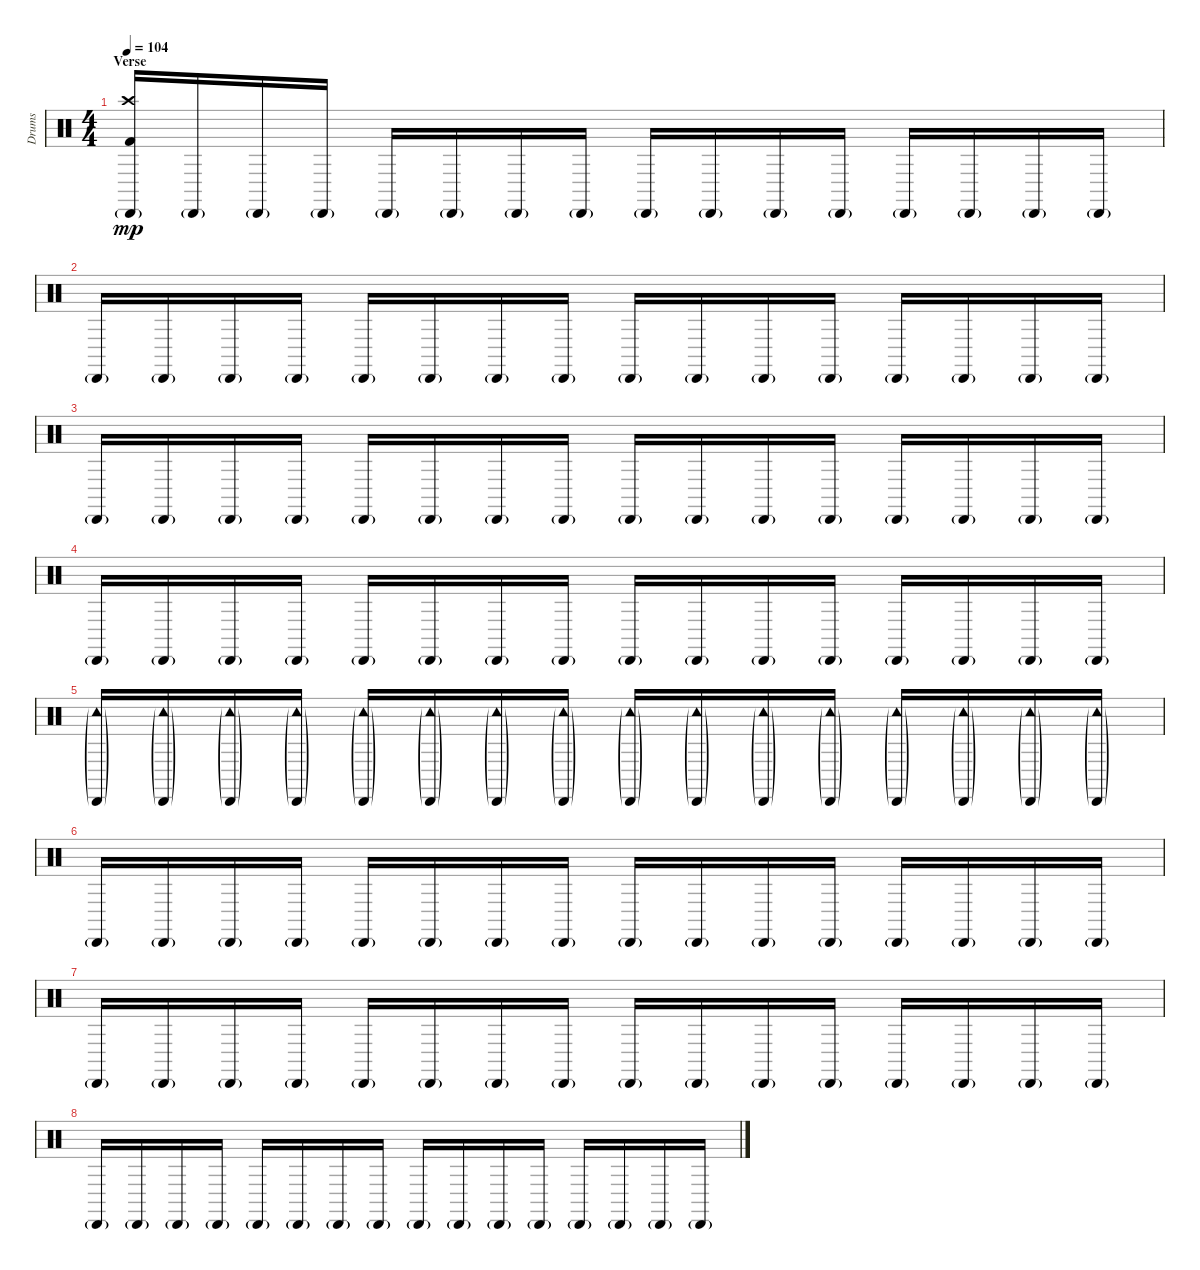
\track ("Drums" "Drums") {instrument percussion}
\staff {score}
\articulation defaults
\ts (4 4)
\section ("" "Verse")
\tempo 104
\clef neutral
\ks c
("Crash high (hit)" "Cabasa (hit)"{g} "Kick (hit) 2").16{dy mp} "Cabasa (hit)"{g}.16 "Cabasa (hit)"{g}.16 "Cabasa (hit)"{g}.16 "Cabasa (hit)"{g}.16 "Cabasa (hit)"{g}.16 "Cabasa (hit)"{g}.16 "Cabasa (hit)"{g}.16 "Cabasa (hit)"{g}.16 "Cabasa (hit)"{g}.16 "Cabasa (hit)"{g}.16 "Cabasa (hit)"{g}.16 "Cabasa (hit)"{g}.16 "Cabasa (hit)"{g}.16 "Cabasa (hit)"{g}.16 "Cabasa (hit)"{g}.16 |
"Cabasa (hit)"{g}.16 "Cabasa (hit)"{g}.16 "Cabasa (hit)"{g}.16 "Cabasa (hit)"{g}.16 "Cabasa (hit)"{g}.16 "Cabasa (hit)"{g}.16 "Cabasa (hit)"{g}.16 "Cabasa (hit)"{g}.16 "Cabasa (hit)"{g}.16 "Cabasa (hit)"{g}.16 "Cabasa (hit)"{g}.16 "Cabasa (hit)"{g}.16 "Cabasa (hit)"{g}.16 "Cabasa (hit)"{g}.16 "Cabasa (hit)"{g}.16 "Cabasa (hit)"{g}.16 |
"Cabasa (hit)"{g}.16 "Cabasa (hit)"{g}.16 "Cabasa (hit)"{g}.16 "Cabasa (hit)"{g}.16 "Cabasa (hit)"{g}.16 "Cabasa (hit)"{g}.16 "Cabasa (hit)"{g}.16 "Cabasa (hit)"{g}.16 "Cabasa (hit)"{g}.16 "Cabasa (hit)"{g}.16 "Cabasa (hit)"{g}.16 "Cabasa (hit)"{g}.16 "Cabasa (hit)"{g}.16 "Cabasa (hit)"{g}.16 "Cabasa (hit)"{g}.16 "Cabasa (hit)"{g}.16 |
"Cabasa (hit)"{g}.16 "Cabasa (hit)"{g}.16 "Cabasa (hit)"{g}.16 "Cabasa (hit)"{g}.16 "Cabasa (hit)"{g}.16 "Cabasa (hit)"{g}.16 "Cabasa (hit)"{g}.16 "Cabasa (hit)"{g}.16 "Cabasa (hit)"{g}.16 "Cabasa (hit)"{g}.16 "Cabasa (hit)"{g}.16 "Cabasa (hit)"{g}.16 "Cabasa (hit)"{g}.16 "Cabasa (hit)"{g}.16 "Cabasa (hit)"{g}.16 "Cabasa (hit)"{g}.16 |
("Cabasa (hit)"{g} "Tambourine (hit)"{g}).16 ("Cabasa (hit)"{g} "Tambourine (hit)"{g}).16 ("Cabasa (hit)"{g} "Tambourine (hit)"{g}).16 ("Cabasa (hit)"{g} "Tambourine (hit)"{g}).16 ("Cabasa (hit)"{g} "Tambourine (hit)"{g}).16 ("Cabasa (hit)"{g} "Tambourine (hit)"{g}).16 ("Cabasa (hit)"{g} "Tambourine (hit)"{g}).16 ("Cabasa (hit)"{g} "Tambourine (hit)"{g}).16 ("Cabasa (hit)"{g} "Tambourine (hit)"{g}).16 ("Cabasa (hit)"{g} "Tambourine (hit)"{g}).16 ("Cabasa (hit)"{g} "Tambourine (hit)"{g}).16 ("Cabasa (hit)"{g} "Tambourine (hit)"{g}).16 ("Cabasa (hit)"{g} "Tambourine (hit)"{g}).16 ("Cabasa (hit)"{g} "Tambourine (hit)"{g}).16 ("Cabasa (hit)"{g} "Tambourine (hit)"{g}).16 ("Cabasa (hit)"{g} "Tambourine (hit)"{g}).16 |
"Cabasa (hit)"{g}.16 "Cabasa (hit)"{g}.16 "Cabasa (hit)"{g}.16 "Cabasa (hit)"{g}.16 "Cabasa (hit)"{g}.16 "Cabasa (hit)"{g}.16 "Cabasa (hit)"{g}.16 "Cabasa (hit)"{g}.16 "Cabasa (hit)"{g}.16 "Cabasa (hit)"{g}.16 "Cabasa (hit)"{g}.16 "Cabasa (hit)"{g}.16 "Cabasa (hit)"{g}.16 "Cabasa (hit)"{g}.16 "Cabasa (hit)"{g}.16 "Cabasa (hit)"{g}.16 |
"Cabasa (hit)"{g}.16 "Cabasa (hit)"{g}.16 "Cabasa (hit)"{g}.16 "Cabasa (hit)"{g}.16 "Cabasa (hit)"{g}.16 "Cabasa (hit)"{g}.16 "Cabasa (hit)"{g}.16 "Cabasa (hit)"{g}.16 "Cabasa (hit)"{g}.16 "Cabasa (hit)"{g}.16 "Cabasa (hit)"{g}.16 "Cabasa (hit)"{g}.16 "Cabasa (hit)"{g}.16 "Cabasa (hit)"{g}.16 "Cabasa (hit)"{g}.16 "Cabasa (hit)"{g}.16 |
"Cabasa (hit)"{g}.16 "Cabasa (hit)"{g}.16 "Cabasa (hit)"{g}.16 "Cabasa (hit)"{g}.16 "Cabasa (hit)"{g}.16 "Cabasa (hit)"{g}.16 "Cabasa (hit)"{g}.16 "Cabasa (hit)"{g}.16 "Cabasa (hit)"{g}.16 "Cabasa (hit)"{g}.16 "Cabasa (hit)"{g}.16 "Cabasa (hit)"{g}.16 "Cabasa (hit)"{g}.16 "Cabasa (hit)"{g}.16 "Cabasa (hit)"{g}.16 "Cabasa (hit)"{g}.16
